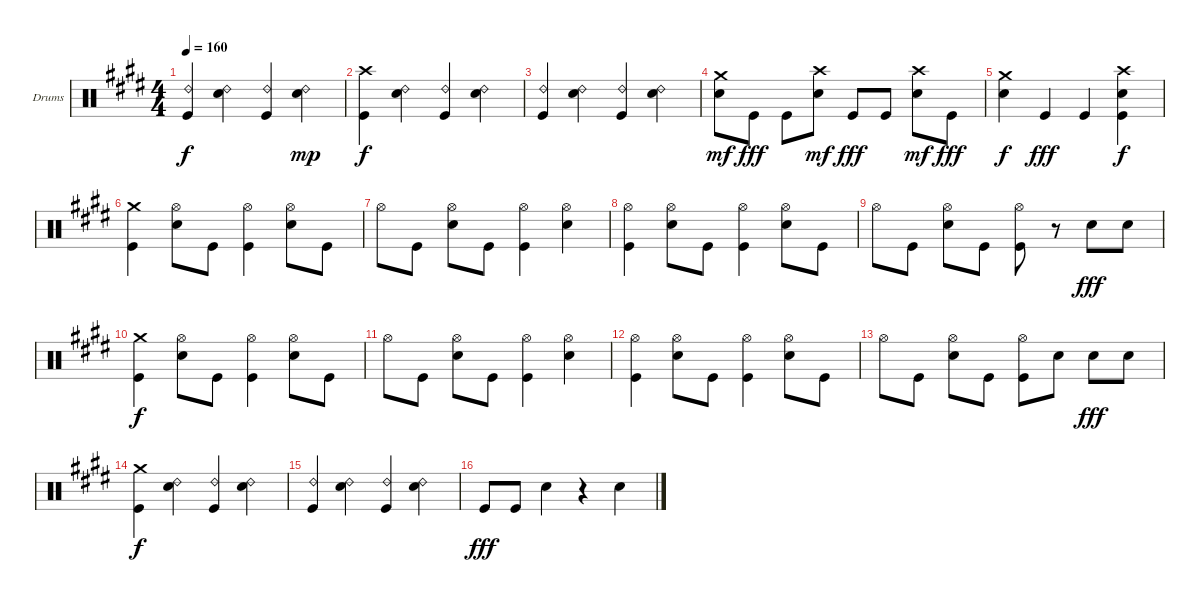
\bracketExtendMode groupsimilarinstruments
\firstSystemTrackNameOrientation horizontal
\otherSystemsTrackNameOrientation horizontal
\track ("Drumkit" "Drums") {instrument percussion}
\staff {score}
\articulation defaults
\ts (4 4)
\tempo 160
\clef neutral
\ks e
("Ride (bell) 2" "Kick (hit)").4{dy f} ("Ride (bell) 2" "Snare (hit) 2").4 ("Ride (bell) 2" "Kick (hit)").4 ("Ride (bell) 2" "Snare (hit) 2").4{dy mp} |
("Crash high (hit)" "Kick (hit)").4{dy f} ("Ride (bell) 2" "Snare (hit) 2").4 ("Ride (bell) 2" "Kick (hit)").4 ("Ride (bell) 2" "Snare (hit) 2").4 |
("Ride (bell) 2" "Kick (hit)").4 ("Ride (bell) 2" "Snare (hit) 2").4 ("Ride (bell) 2" "Kick (hit)").4 ("Ride (bell) 2" "Snare (hit) 2").4 |
("Crash medium (hit)" "Snare (hit) 2").8{dy mf} "Kick (hit)".8{dy fff} "Kick (hit)".8 ("Crash high (hit)" "Snare (hit) 2").8{dy mf} "Kick (hit)".8{dy fff} "Kick (hit)".8 ("Crash high (hit)" "Snare (hit) 2").8{dy mf} "Kick (hit)".8{dy fff} |
("Crash medium (hit)" "Snare (hit) 2").4{dy f} "Kick (hit)".4{dy fff} "Kick (hit)".4 ("Crash high (hit)" "Snare (hit) 2" "Kick (hit)").4{dy f} |
("Crash medium (hit)" "Kick (hit)").4 ("Hi-Hat (open)" "Snare (hit) 2").8 "Kick (hit)".8 ("Hi-Hat (open)" "Kick (hit)").4 ("Hi-Hat (open)" "Snare (hit) 2").8 "Kick (hit)".8 |
"Hi-Hat (open)".8 "Kick (hit)".8 ("Hi-Hat (open)" "Snare (hit) 2").8 "Kick (hit)".8 ("Hi-Hat (open)" "Kick (hit)").4 ("Hi-Hat (open)" "Snare (hit) 2").4 |
("Hi-Hat (open)" "Kick (hit)").4 ("Hi-Hat (open)" "Snare (hit) 2").8 "Kick (hit)".8 ("Hi-Hat (open)" "Kick (hit)").4 ("Hi-Hat (open)" "Snare (hit) 2").8 "Kick (hit)".8 |
"Hi-Hat (open)".8 "Kick (hit)".8 ("Hi-Hat (open)" "Snare (hit) 2").8 "Kick (hit)".8 ("Hi-Hat (open)" "Kick (hit)").8 r.8 "Snare (hit) 2".8{dy fff} "Snare (hit) 2".8 |
("Crash medium (hit)" "Kick (hit)").4{dy f} ("Hi-Hat (open)" "Snare (hit) 2").8 "Kick (hit)".8 ("Hi-Hat (open)" "Kick (hit)").4 ("Hi-Hat (open)" "Snare (hit) 2").8 "Kick (hit)".8 |
"Hi-Hat (open)".8 "Kick (hit)".8 ("Hi-Hat (open)" "Snare (hit) 2").8 "Kick (hit)".8 ("Hi-Hat (open)" "Kick (hit)").4 ("Hi-Hat (open)" "Snare (hit) 2").4 |
("Hi-Hat (open)" "Kick (hit)").4 ("Hi-Hat (open)" "Snare (hit) 2").8 "Kick (hit)".8 ("Hi-Hat (open)" "Kick (hit)").4 ("Hi-Hat (open)" "Snare (hit) 2").8 "Kick (hit)".8 |
"Hi-Hat (open)".8 "Kick (hit)".8 ("Hi-Hat (open)" "Snare (hit) 2").8 "Kick (hit)".8 ("Hi-Hat (open)" "Kick (hit)").8 "Snare (hit) 2".8 "Snare (hit) 2".8{dy fff} "Snare (hit) 2".8 |
("Crash medium (hit)" "Kick (hit)").4{dy f} ("Ride (bell) 2" "Snare (hit) 2").4 ("Ride (bell) 2" "Kick (hit)").4 ("Ride (bell) 2" "Snare (hit) 2").4 |
("Ride (bell) 2" "Kick (hit)").4 ("Ride (bell) 2" "Snare (hit) 2").4 ("Ride (bell) 2" "Kick (hit)").4 ("Ride (bell) 2" "Snare (hit) 2").4 |
"Kick (hit)".8{dy fff} "Kick (hit)".8 "Snare (hit) 2".4 r.4 "Snare (hit) 2".4
